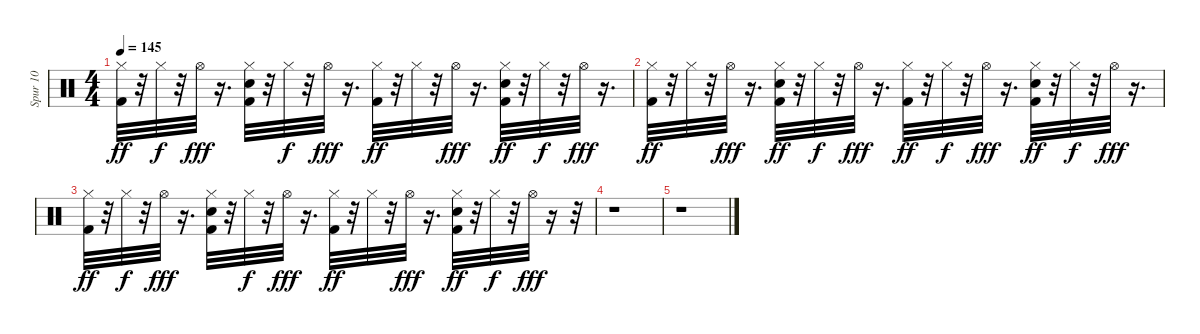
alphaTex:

\track ("Spur 10" "Spur 10") {instrument percussion}
\staff {score}
\articulation defaults
\ts (4 4)
\tempo 145
\clef neutral
\ks c
("Hi-Hat (closed)" "Kick (hit) 2").32{dy ff} r.32 "Hi-Hat (closed)".32{dy f} r.32 "Hi-Hat (open)".32{dy fff} r.16{d} ("Hand Clap (hit)" "Kick (hit) 2" "Hi-Hat (closed)").32 r.32 "Hi-Hat (closed)".32{dy f} r.32 "Hi-Hat (open)".32{dy fff} r.16{d} ("Hi-Hat (closed)" "Kick (hit) 2").32{dy ff} r.32 "Hi-Hat (closed)".32 r.32 "Hi-Hat (open)".32{dy fff} r.16{d} ("Hand Clap (hit)" "Hi-Hat (closed)" "Kick (hit) 2").32{dy ff} r.32 "Hi-Hat (closed)".32{dy f} r.32 "Hi-Hat (open)".32{dy fff} r.16{d} |
("Hi-Hat (closed)" "Kick (hit) 2").32{dy ff} r.32 "Hi-Hat (closed)".32 r.32 "Hi-Hat (open)".32{dy fff} r.16{d} ("Hand Clap (hit)" "Hi-Hat (closed)" "Kick (hit) 2").32{dy ff} r.32 "Hi-Hat (closed)".32{dy f} r.32 "Hi-Hat (open)".32{dy fff} r.16{d} ("Hi-Hat (closed)" "Kick (hit) 2").32{dy ff} r.32 "Hi-Hat (closed)".32{dy f} r.32 "Hi-Hat (open)".32{dy fff} r.16{d} ("Hi-Hat (closed)" "Hand Clap (hit)" "Kick (hit) 2").32{dy ff} r.32 "Hi-Hat (closed)".32{dy f} r.32 "Hi-Hat (open)".32{dy fff} r.16{d} |
("Hi-Hat (closed)" "Kick (hit) 2").32{dy ff} r.32 "Hi-Hat (closed)".32{dy f} r.32 "Hi-Hat (open)".32{dy fff} r.16{d} ("Hand Clap (hit)" "Kick (hit) 2" "Hi-Hat (closed)").32 r.32 "Hi-Hat (closed)".32{dy f} r.32 "Hi-Hat (open)".32{dy fff} r.16{d} ("Hi-Hat (closed)" "Kick (hit) 2").32{dy ff} r.32 "Hi-Hat (closed)".32 r.32 "Hi-Hat (open)".32{dy fff} r.16{d} ("Hand Clap (hit)" "Hi-Hat (closed)" "Kick (hit) 2").32{dy ff} r.32 "Hi-Hat (closed)".32{dy f} r.32 "Hi-Hat (open)".32{dy fff} r.16 r.32 |
r.1 |
r.1
